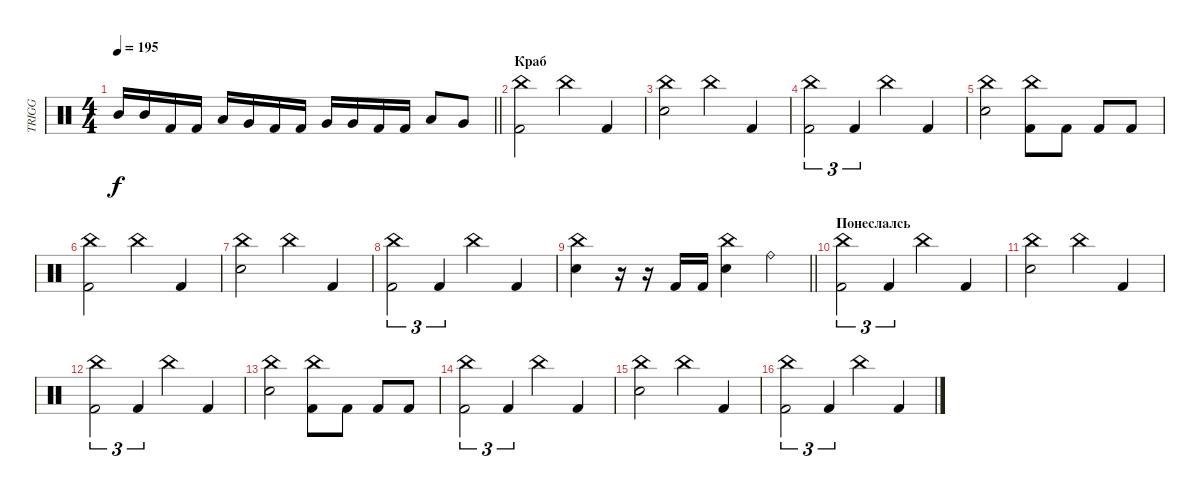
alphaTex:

\track ("TRIGG" "TRIGG") {instrument percussion}
\staff {score}
\articulation defaults
\ts (4 4)
\tempo 195
\clef neutral
\barLineRight lightlight
\ks c "Mid Tom (hit)".16{dy f} "Mid Tom (hit)".16 "Kick (hit) 2".16 "Kick (hit) 2".16 "Low Tom (hit)".16 "Very Low Tom (hit)".16 "Kick (hit) 2".16 "Kick (hit) 2".16 "Very Low Tom (hit)".16 "Very Low Tom (hit)".16 "Kick (hit) 2".16 "Kick (hit) 2".16 "Low Tom (hit)".8 "Very Low Tom (hit)".8
|
\section ("" "Краб")
("China (hit)" "Kick (hit) 2").2 "China (hit)".4 "Kick (hit) 2".4 |
("China (hit)" "Electric Snare (hit)").2 "China (hit)".4 "Kick (hit) 2".4 |
("China (hit)" "Kick (hit) 2").2{tu (3 2)} "Kick (hit) 2".4{tu (3 2)} "China (hit)".4 "Kick (hit) 2".4 |
("China (hit)" "Electric Snare (hit)").2 ("China (hit)" "Kick (hit) 2").8 "Kick (hit) 2".8 "Kick (hit) 2".8 "Kick (hit) 2".8 |
("China (hit)" "Kick (hit) 2").2 "China (hit)".4 "Kick (hit) 2".4 |
("China (hit)" "Electric Snare (hit)").2 "China (hit)".4 "Kick (hit) 2".4 |
("China (hit)" "Kick (hit) 2").2{tu (3 2)} "Kick (hit) 2".4{tu (3 2)} "China (hit)".4 "Kick (hit) 2".4 |
\barLineRight lightlight
("China (hit)" "Electric Snare (hit)").4 r.16 r.16 "Kick (hit) 2".16 "Kick (hit) 2".16 ("China (hit)" "Electric Snare (hit)").4 "Ride (bell)".4 |
\section ("" "Понеслалсь")
("China (hit)" "Kick (hit) 2").2{tu (3 2)} "Kick (hit) 2".4{tu (3 2)} "China (hit)".4 "Kick (hit) 2".4 |
("China (hit)" "Electric Snare (hit)").2 "China (hit)".4 "Kick (hit) 2".4 |
("China (hit)" "Kick (hit) 2").2{tu (3 2)} "Kick (hit) 2".4{tu (3 2)} "China (hit)".4 "Kick (hit) 2".4 |
("China (hit)" "Electric Snare (hit)").2 ("China (hit)" "Kick (hit) 2").8 "Kick (hit) 2".8 "Kick (hit) 2".8 "Kick (hit) 2".8 |
("China (hit)" "Kick (hit) 2").2{tu (3 2)} "Kick (hit) 2".4{tu (3 2)} "China (hit)".4 "Kick (hit) 2".4 |
("China (hit)" "Electric Snare (hit)").2 "China (hit)".4 "Kick (hit) 2".4 |
("China (hit)" "Kick (hit) 2").2{tu (3 2)} "Kick (hit) 2".4{tu (3 2)} "China (hit)".4 "Kick (hit) 2".4
